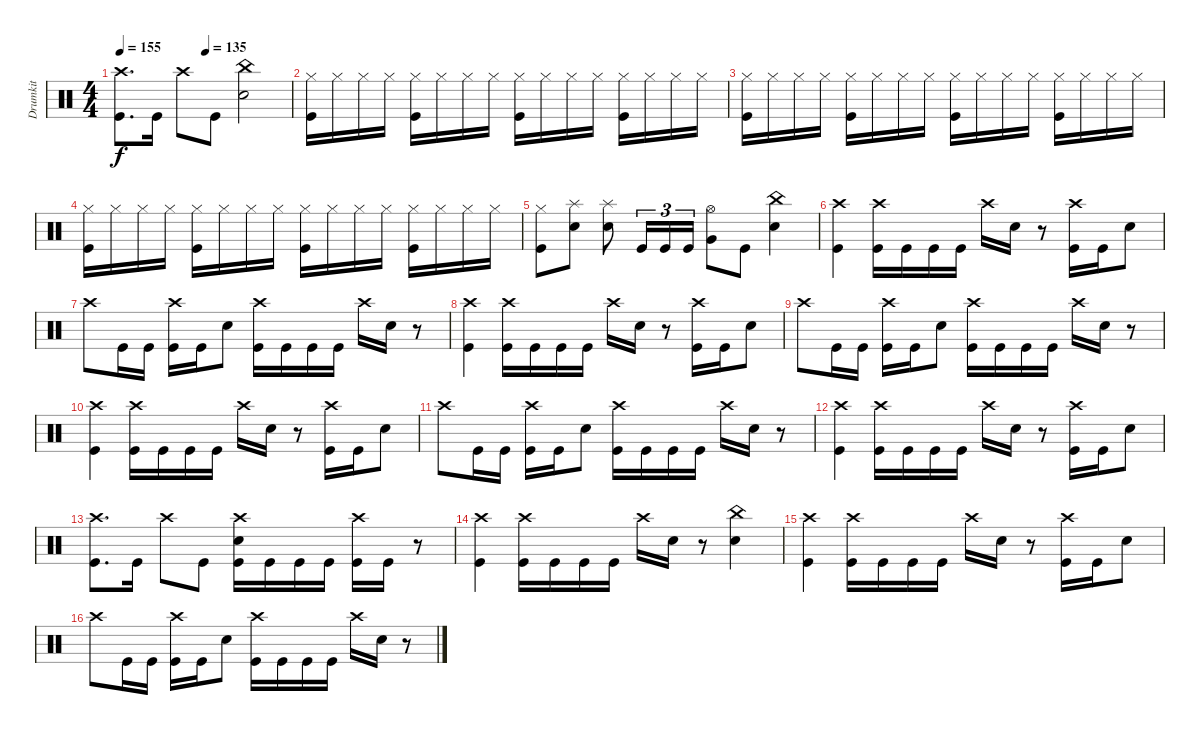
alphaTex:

\track ("Drumkit" "Drumkit") {instrument percussion}
\staff {score}
\articulation defaults
\ts (4 4)
\tempo 155
\tempo (135 0.5)
\clef neutral
\ks c
("Crash high (hit)" "Kick (hit)").8{d dy f} "Kick (hit)".16 "Crash high (hit)".8 "Kick (hit)".8 ("China (hit)" "Snare (hit) 2").2 |
("Hi-Hat (closed)" "Kick (hit)").16 "Hi-Hat (closed)".16 "Hi-Hat (closed)".16 "Hi-Hat (closed)".16 ("Hi-Hat (closed)" "Kick (hit)").16 "Hi-Hat (closed)".16 "Hi-Hat (closed)".16 "Hi-Hat (closed)".16 ("Hi-Hat (closed)" "Kick (hit)").16 "Hi-Hat (closed)".16 "Hi-Hat (closed)".16 "Hi-Hat (closed)".16 ("Hi-Hat (closed)" "Kick (hit)").16 "Hi-Hat (closed)".16 "Hi-Hat (closed)".16 "Hi-Hat (closed)".16 |
("Hi-Hat (closed)" "Kick (hit)").16 "Hi-Hat (closed)".16 "Hi-Hat (closed)".16 "Hi-Hat (closed)".16 ("Hi-Hat (closed)" "Kick (hit)").16 "Hi-Hat (closed)".16 "Hi-Hat (closed)".16 "Hi-Hat (closed)".16 ("Hi-Hat (closed)" "Kick (hit)").16 "Hi-Hat (closed)".16 "Hi-Hat (closed)".16 "Hi-Hat (closed)".16 ("Hi-Hat (closed)" "Kick (hit)").16 "Hi-Hat (closed)".16 "Hi-Hat (closed)".16 "Hi-Hat (closed)".16 |
("Hi-Hat (closed)" "Kick (hit)").16 "Hi-Hat (closed)".16 "Hi-Hat (closed)".16 "Hi-Hat (closed)".16 ("Hi-Hat (closed)" "Kick (hit)").16 "Hi-Hat (closed)".16 "Hi-Hat (closed)".16 "Hi-Hat (closed)".16 ("Hi-Hat (closed)" "Kick (hit)").16 "Hi-Hat (closed)".16 "Hi-Hat (closed)".16 "Hi-Hat (closed)".16 ("Hi-Hat (closed)" "Kick (hit)").16 "Hi-Hat (closed)".16 "Hi-Hat (closed)".16 "Hi-Hat (closed)".16 |
("Hi-Hat (closed)" "Kick (hit)").8 ("Splash (hit)" "Snare (hit) 2").8 ("Splash (hit)" "Snare (hit) 2").8 "Kick (hit)".16{tu (3 2)} "Kick (hit)".16{tu (3 2)} "Kick (hit)".16{tu (3 2)} ("Hi-Hat (open)" "Very Low Tom (hit)").8 "Kick (hit)".8 ("China (hit)" "Snare (hit) 2").4 |
("Crash high (hit)" "Kick (hit)").4 ("Crash high (hit)" "Kick (hit)").16 "Kick (hit)".16 "Kick (hit)".16 "Kick (hit)".16 "Crash high (hit)".16 "Snare (hit) 2".16 r.8 ("Crash high (hit)" "Kick (hit)").16 "Kick (hit)".16 "Snare (hit) 2".8 |
"Crash high (hit)".8 "Kick (hit)".16 "Kick (hit)".16 ("Crash high (hit)" "Kick (hit)").16 "Kick (hit)".16 "Snare (hit) 2".8 ("Kick (hit)" "Crash high (hit)").16 "Kick (hit)".16 "Kick (hit)".16 "Kick (hit)".16 "Crash high (hit)".16 "Snare (hit) 2".16 r.8 |
("Crash high (hit)" "Kick (hit)").4 ("Crash high (hit)" "Kick (hit)").16 "Kick (hit)".16 "Kick (hit)".16 "Kick (hit)".16 "Crash high (hit)".16 "Snare (hit) 2".16 r.8 ("Crash high (hit)" "Kick (hit)").16 "Kick (hit)".16 "Snare (hit) 2".8 |
"Crash high (hit)".8 "Kick (hit)".16 "Kick (hit)".16 ("Crash high (hit)" "Kick (hit)").16 "Kick (hit)".16 "Snare (hit) 2".8 ("Kick (hit)" "Crash high (hit)").16 "Kick (hit)".16 "Kick (hit)".16 "Kick (hit)".16 "Crash high (hit)".16 "Snare (hit) 2".16 r.8 |
("Crash high (hit)" "Kick (hit)").4 ("Crash high (hit)" "Kick (hit)").16 "Kick (hit)".16 "Kick (hit)".16 "Kick (hit)".16 "Crash high (hit)".16 "Snare (hit) 2".16 r.8 ("Crash high (hit)" "Kick (hit)").16 "Kick (hit)".16 "Snare (hit) 2".8 |
"Crash high (hit)".8 "Kick (hit)".16 "Kick (hit)".16 ("Crash high (hit)" "Kick (hit)").16 "Kick (hit)".16 "Snare (hit) 2".8 ("Kick (hit)" "Crash high (hit)").16 "Kick (hit)".16 "Kick (hit)".16 "Kick (hit)".16 "Crash high (hit)".16 "Snare (hit) 2".16 r.8 |
("Crash high (hit)" "Kick (hit)").4 ("Crash high (hit)" "Kick (hit)").16 "Kick (hit)".16 "Kick (hit)".16 "Kick (hit)".16 "Crash high (hit)".16 "Snare (hit) 2".16 r.8 ("Crash high (hit)" "Kick (hit)").16 "Kick (hit)".16 "Snare (hit) 2".8 |
("Crash high (hit)" "Kick (hit)").8{d} "Kick (hit)".16 "Crash high (hit)".8 "Kick (hit)".8 ("Crash high (hit)" "Snare (hit) 2" "Kick (hit)").16 "Kick (hit)".16 "Kick (hit)".16 "Kick (hit)".16 ("Crash high (hit)" "Kick (hit)").16 "Kick (hit)".16 r.8 |
("Crash high (hit)" "Kick (hit)").4 ("Kick (hit)" "Crash high (hit)").16 "Kick (hit)".16 "Kick (hit)".16 "Kick (hit)".16 "Crash high (hit)".16 "Snare (hit) 2".16 r.8 ("China (hit)" "Snare (hit) 2").4 |
("Crash high (hit)" "Kick (hit)").4 ("Crash high (hit)" "Kick (hit)").16 "Kick (hit)".16 "Kick (hit)".16 "Kick (hit)".16 "Crash high (hit)".16 "Snare (hit) 2".16 r.8 ("Crash high (hit)" "Kick (hit)").16 "Kick (hit)".16 "Snare (hit) 2".8 |
"Crash high (hit)".8 "Kick (hit)".16 "Kick (hit)".16 ("Crash high (hit)" "Kick (hit)").16 "Kick (hit)".16 "Snare (hit) 2".8 ("Kick (hit)" "Crash high (hit)").16 "Kick (hit)".16 "Kick (hit)".16 "Kick (hit)".16 "Crash high (hit)".16 "Snare (hit) 2".16 r.8
